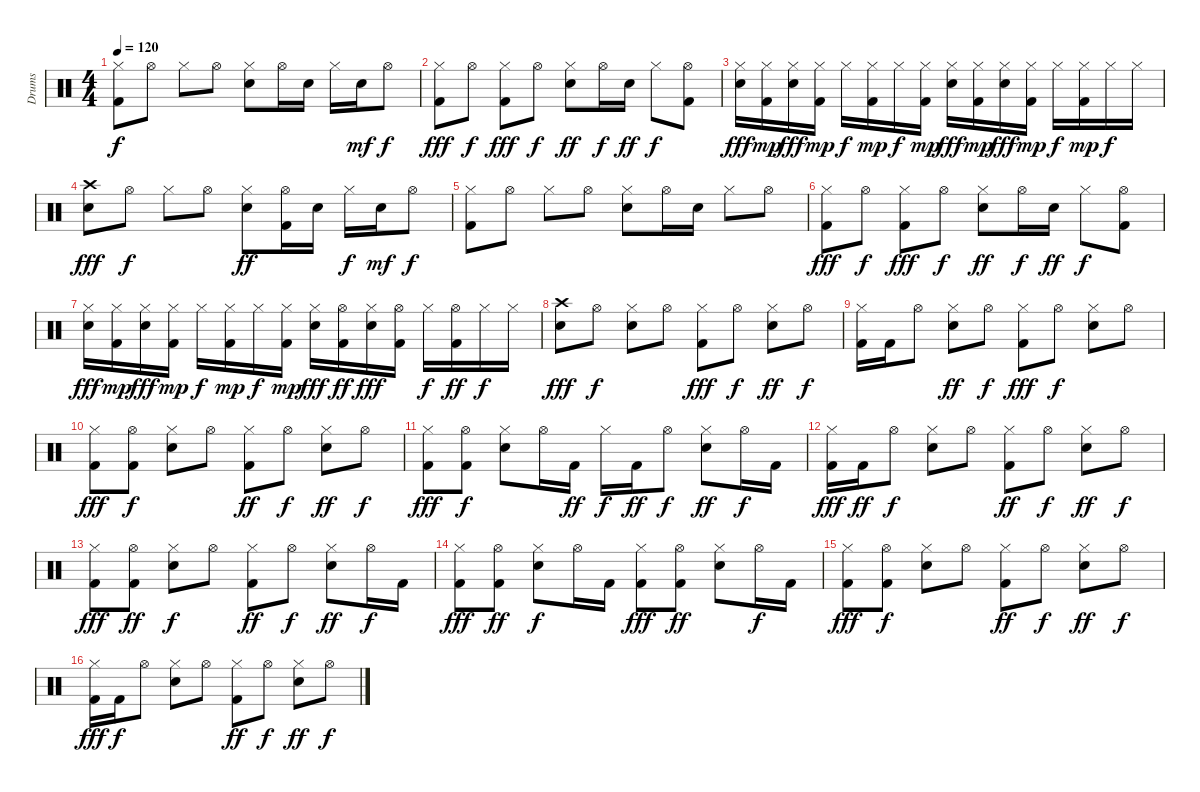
\track ("Drums" "Drums") {instrument percussion}
\staff {score}
\articulation defaults
\ts (4 4)
\tempo 120
\clef neutral
\ks c
("Kick (hit) 2" "Hi-Hat (closed)").8{dy f} "Hi-Hat (open)".8 "Hi-Hat (closed)".8 "Hi-Hat (open)".8 ("Snare (hit) 2" "Hi-Hat (closed)").8 "Hi-Hat (open)".16 "Snare (hit) 2".16 "Hi-Hat (closed)".16 "Snare (hit) 2".16{dy mf} "Hi-Hat (open)".8{dy f} |
("Kick (hit) 2" "Hi-Hat (closed)").8{dy fff} "Hi-Hat (open)".8{dy f} ("Kick (hit) 2" "Hi-Hat (closed)").8{dy fff} "Hi-Hat (open)".8{dy f} ("Snare (hit) 2" "Hi-Hat (closed)").8{dy ff} "Hi-Hat (open)".16{dy f} "Snare (hit) 2".16{dy ff} "Hi-Hat (closed)".8{dy f} ("Kick (hit) 2" "Hi-Hat (open)").8 |
("Snare (hit) 2" "Hi-Hat (closed)").16{dy fff} ("Kick (hit) 2" "Hi-Hat (closed)").16{dy mp} ("Snare (hit) 2" "Hi-Hat (closed)").16{dy fff} ("Kick (hit) 2" "Hi-Hat (closed)").16{dy mp} "Hi-Hat (closed)".16{dy f} ("Kick (hit) 2" "Hi-Hat (closed)").16{dy mp} "Hi-Hat (closed)".16{dy f} ("Kick (hit) 2" "Hi-Hat (closed)").16{dy mp} ("Snare (hit) 2" "Hi-Hat (closed)").16{dy fff} ("Kick (hit) 2" "Hi-Hat (closed)").16{dy mp} ("Snare (hit) 2" "Hi-Hat (closed)").16{dy fff} ("Kick (hit) 2" "Hi-Hat (closed)").16{dy mp} "Hi-Hat (closed)".16{dy f} ("Kick (hit) 2" "Hi-Hat (closed)").16{dy mp} "Hi-Hat (closed)".16{dy f} "Hi-Hat (closed)".16 |
("Snare (hit) 2" "Crash high (hit)").8{dy fff} "Hi-Hat (open)".8{dy f} "Hi-Hat (closed)".8 "Hi-Hat (open)".8 ("Snare (hit) 2" "Hi-Hat (closed)").8{dy ff} ("Kick (hit) 2" "Hi-Hat (open)").16 "Snare (hit) 2".16 "Hi-Hat (closed)".16{dy f} "Snare (hit) 2".16{dy mf} "Hi-Hat (open)".8{dy f} |
("Kick (hit) 2" "Hi-Hat (closed)").8 "Hi-Hat (open)".8 "Hi-Hat (closed)".8 "Hi-Hat (open)".8 ("Snare (hit) 2" "Hi-Hat (closed)").8 "Hi-Hat (open)".16 "Snare (hit) 2".16 "Hi-Hat (closed)".8 "Hi-Hat (open)".8 |
("Kick (hit) 2" "Hi-Hat (closed)").8{dy fff} "Hi-Hat (open)".8{dy f} ("Kick (hit) 2" "Hi-Hat (closed)").8{dy fff} "Hi-Hat (open)".8{dy f} ("Snare (hit) 2" "Hi-Hat (closed)").8{dy ff} "Hi-Hat (open)".16{dy f} "Snare (hit) 2".16{dy ff} "Hi-Hat (closed)".8{dy f} ("Kick (hit) 2" "Hi-Hat (open)").8 |
("Snare (hit) 2" "Hi-Hat (closed)").16{dy fff} ("Kick (hit) 2" "Hi-Hat (closed)").16{dy mp} ("Snare (hit) 2" "Hi-Hat (closed)").16{dy fff} ("Kick (hit) 2" "Hi-Hat (closed)").16{dy mp} "Hi-Hat (closed)".16{dy f} ("Kick (hit) 2" "Hi-Hat (closed)").16{dy mp} "Hi-Hat (closed)".16{dy f} ("Kick (hit) 2" "Hi-Hat (closed)").16{dy mp} ("Snare (hit) 2" "Hi-Hat (closed)").16{dy fff} ("Kick (hit) 2" "Hi-Hat (open)").16{dy ff} ("Snare (hit) 2" "Hi-Hat (closed)").16{dy fff} ("Kick (hit) 2" "Hi-Hat (open)").16 "Hi-Hat (closed)".16{dy f} ("Kick (hit) 2" "Hi-Hat (open)").16{dy ff} "Hi-Hat (closed)".16{dy f} "Hi-Hat (closed)".16 |
("Snare (hit) 2" "Crash high (hit)").8{dy fff} "Hi-Hat (open)".8{dy f} ("Snare (hit) 2" "Hi-Hat (closed)").8 "Hi-Hat (open)".8 ("Kick (hit) 2" "Hi-Hat (closed)").8{dy fff} "Hi-Hat (open)".8{dy f} ("Snare (hit) 2" "Hi-Hat (closed)").8{dy ff} "Hi-Hat (open)".8{dy f} |
("Kick (hit) 2" "Hi-Hat (closed)").16 "Kick (hit) 2".16 "Hi-Hat (open)".8 ("Snare (hit) 2" "Hi-Hat (closed)").8{dy ff} "Hi-Hat (open)".8{dy f} ("Kick (hit) 2" "Hi-Hat (closed)").8{dy fff} "Hi-Hat (open)".8{dy f} ("Snare (hit) 2" "Hi-Hat (closed)").8 "Hi-Hat (open)".8 |
("Kick (hit) 2" "Hi-Hat (closed)").8{dy fff} ("Kick (hit) 2" "Hi-Hat (open)").8{dy f} ("Snare (hit) 2" "Hi-Hat (closed)").8 "Hi-Hat (open)".8 ("Kick (hit) 2" "Hi-Hat (closed)").8{dy ff} "Hi-Hat (open)".8{dy f} ("Snare (hit) 2" "Hi-Hat (closed)").8{dy ff} "Hi-Hat (open)".8{dy f} |
("Kick (hit) 2" "Hi-Hat (closed)").8{dy fff} ("Kick (hit) 2" "Hi-Hat (open)").8{dy f} ("Snare (hit) 2" "Hi-Hat (closed)").8 "Hi-Hat (open)".16 "Kick (hit) 2".16{dy ff} "Hi-Hat (closed)".16{dy f} "Kick (hit) 2".16{dy ff} "Hi-Hat (open)".8{dy f} ("Snare (hit) 2" "Hi-Hat (closed)").8{dy ff} "Hi-Hat (open)".16{dy f} "Kick (hit) 2".16 |
("Kick (hit) 2" "Hi-Hat (closed)").16{dy fff} "Kick (hit) 2".16{dy ff} "Hi-Hat (open)".8{dy f} ("Snare (hit) 2" "Hi-Hat (closed)").8 "Hi-Hat (open)".8 ("Kick (hit) 2" "Hi-Hat (closed)").8{dy ff} "Hi-Hat (open)".8{dy f} ("Snare (hit) 2" "Hi-Hat (closed)").8{dy ff} "Hi-Hat (open)".8{dy f} |
("Kick (hit) 2" "Hi-Hat (closed)").8{dy fff} ("Kick (hit) 2" "Hi-Hat (open)").8{dy ff} ("Snare (hit) 2" "Hi-Hat (closed)").8{dy f} "Hi-Hat (open)".8 ("Kick (hit) 2" "Hi-Hat (closed)").8{dy ff} "Hi-Hat (open)".8{dy f} ("Snare (hit) 2" "Hi-Hat (closed)").8{dy ff} "Hi-Hat (open)".16{dy f} "Kick (hit) 2".16 |
("Kick (hit) 2" "Hi-Hat (closed)").8{dy fff} ("Kick (hit) 2" "Hi-Hat (open)").8{dy ff} ("Snare (hit) 2" "Hi-Hat (closed)").8{dy f} "Hi-Hat (open)".16 "Kick (hit) 2".16 ("Kick (hit) 2" "Hi-Hat (closed)").8{dy fff} ("Kick (hit) 2" "Hi-Hat (open)").8{dy ff} ("Snare (hit) 2" "Hi-Hat (closed)").8 "Hi-Hat (open)".16{dy f} "Kick (hit) 2".16 |
("Kick (hit) 2" "Hi-Hat (closed)").8{dy fff} ("Kick (hit) 2" "Hi-Hat (open)").8{dy f} ("Snare (hit) 2" "Hi-Hat (closed)").8 "Hi-Hat (open)".8 ("Kick (hit) 2" "Hi-Hat (closed)").8{dy ff} "Hi-Hat (open)".8{dy f} ("Snare (hit) 2" "Hi-Hat (closed)").8{dy ff} "Hi-Hat (open)".8{dy f} |
("Kick (hit) 2" "Hi-Hat (closed)").16{dy fff} "Kick (hit) 2".16{dy f} "Hi-Hat (open)".8 ("Snare (hit) 2" "Hi-Hat (closed)").8 "Hi-Hat (open)".8 ("Kick (hit) 2" "Hi-Hat (closed)").8{dy ff} "Hi-Hat (open)".8{dy f} ("Snare (hit) 2" "Hi-Hat (closed)").8{dy ff} "Hi-Hat (open)".8{dy f}
